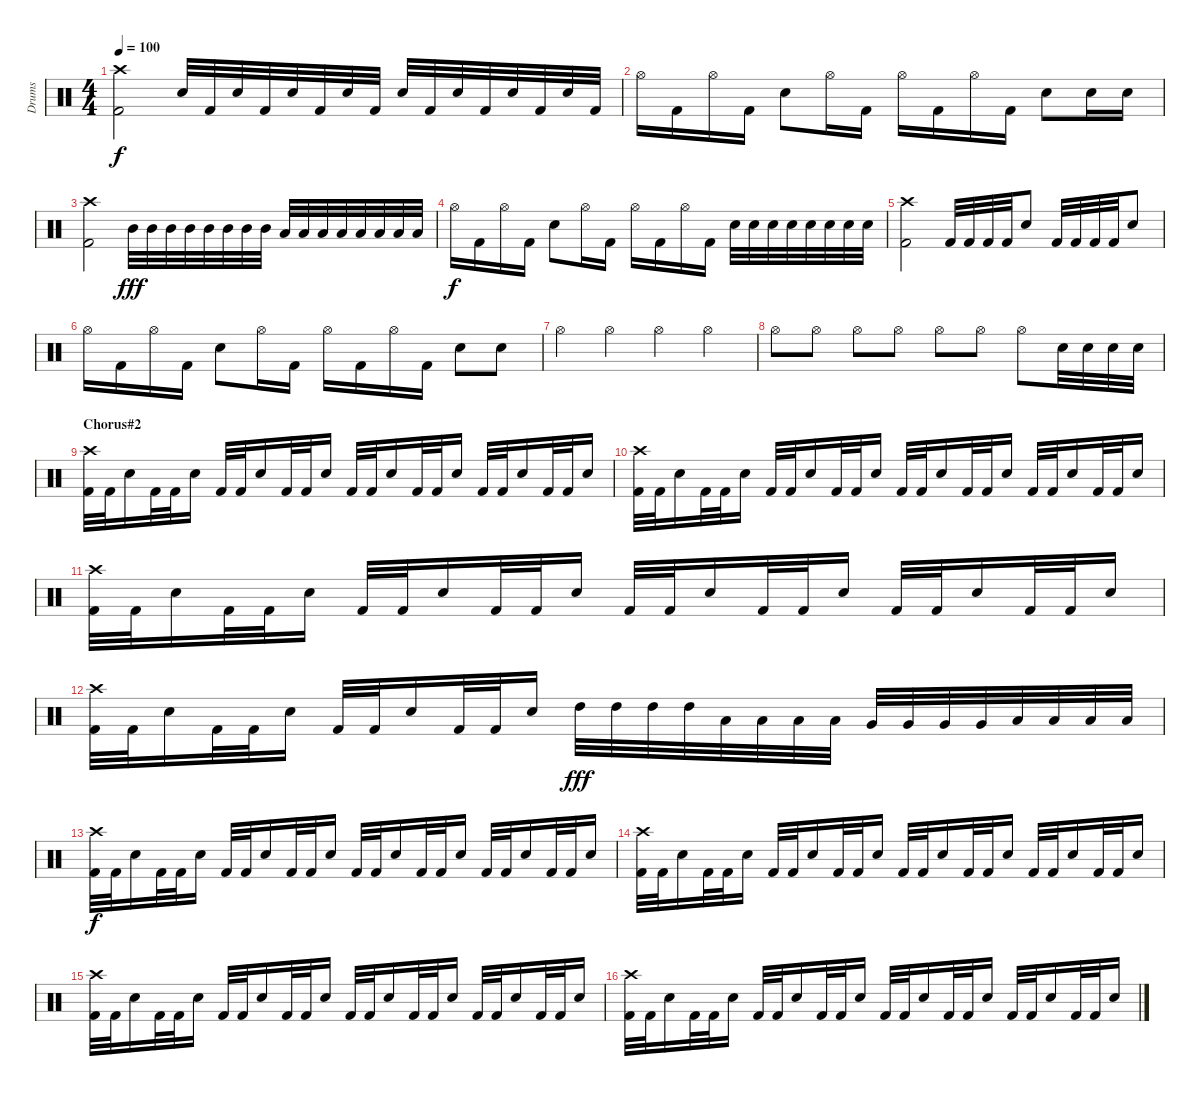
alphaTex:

\track ("Drums" "Drums") {instrument percussion}
\staff {score}
\articulation defaults
\ts (4 4)
\tempo 100
\clef neutral
\ks c
("Crash high (hit)" "Kick (hit) 2").2{dy f} "Snare (hit) 2".32 "Kick (hit) 2".32 "Snare (hit) 2".32 "Kick (hit) 2".32 "Snare (hit) 2".32 "Kick (hit) 2".32 "Snare (hit) 2".32 "Kick (hit) 2".32 "Snare (hit) 2".32 "Kick (hit) 2".32 "Snare (hit) 2".32 "Kick (hit) 2".32 "Snare (hit) 2".32 "Kick (hit) 2".32 "Snare (hit) 2".32 "Kick (hit) 2".32 |
"Hi-Hat (open)".16 "Kick (hit) 2".16 "Hi-Hat (open)".16 "Kick (hit) 2".16 "Snare (hit) 2".8 "Hi-Hat (open)".16 "Kick (hit) 2".16 "Hi-Hat (open)".16 "Kick (hit) 2".16 "Hi-Hat (open)".16 "Kick (hit) 2".16 "Snare (hit) 2".8 "Snare (hit) 2".16 "Snare (hit) 2".16 |
("Crash high (hit)" "Kick (hit) 2").2 "Mid Tom (hit)".32{dy fff} "Mid Tom (hit)".32 "Mid Tom (hit)".32 "Mid Tom (hit)".32 "Mid Tom (hit)".32 "Mid Tom (hit)".32 "Mid Tom (hit)".32 "Mid Tom (hit)".32 "Low Tom (hit)".32 "Low Tom (hit)".32 "Low Tom (hit)".32 "Low Tom (hit)".32 "Low Tom (hit)".32 "Low Tom (hit)".32 "Low Tom (hit)".32 "Low Tom (hit)".32 |
"Hi-Hat (open)".16{dy f} "Kick (hit) 2".16 "Hi-Hat (open)".16 "Kick (hit) 2".16 "Snare (hit) 2".8 "Hi-Hat (open)".16 "Kick (hit) 2".16 "Hi-Hat (open)".16 "Kick (hit) 2".16 "Hi-Hat (open)".16 "Kick (hit) 2".16 "Snare (hit) 2".32 "Snare (hit) 2".32 "Snare (hit) 2".32 "Snare (hit) 2".32 "Snare (hit) 2".32 "Snare (hit) 2".32 "Snare (hit) 2".32 "Snare (hit) 2".32 |
("Crash high (hit)" "Kick (hit) 2").2 "Kick (hit) 2".32 "Kick (hit) 2".32 "Kick (hit) 2".32 "Kick (hit) 2".32 "Snare (hit) 2".8 "Kick (hit) 2".32 "Kick (hit) 2".32 "Kick (hit) 2".32 "Kick (hit) 2".32 "Snare (hit) 2".8 |
"Hi-Hat (open)".16 "Kick (hit) 2".16 "Hi-Hat (open)".16 "Kick (hit) 2".16 "Snare (hit) 2".8 "Hi-Hat (open)".16 "Kick (hit) 2".16 "Hi-Hat (open)".16 "Kick (hit) 2".16 "Hi-Hat (open)".16 "Kick (hit) 2".16 "Snare (hit) 2".8 "Snare (hit) 2".8 |
"Hi-Hat (open)".4 "Hi-Hat (open)".4 "Hi-Hat (open)".4 "Hi-Hat (open)".4 |
"Hi-Hat (open)".8 "Hi-Hat (open)".8 "Hi-Hat (open)".8 "Hi-Hat (open)".8 "Hi-Hat (open)".8 "Hi-Hat (open)".8 "Hi-Hat (open)".8 "Snare (hit) 2".32 "Snare (hit) 2".32 "Snare (hit) 2".32 "Snare (hit) 2".32 |
\section ("" "Chorus#2")
("Crash high (hit)" "Kick (hit) 2").32 "Kick (hit) 2".32 "Snare (hit) 2".16 "Kick (hit) 2".32 "Kick (hit) 2".32 "Snare (hit) 2".16 "Kick (hit) 2".32 "Kick (hit) 2".32 "Snare (hit) 2".16 "Kick (hit) 2".32 "Kick (hit) 2".32 "Snare (hit) 2".16 "Kick (hit) 2".32 "Kick (hit) 2".32 "Snare (hit) 2".16 "Kick (hit) 2".32 "Kick (hit) 2".32 "Snare (hit) 2".16 "Kick (hit) 2".32 "Kick (hit) 2".32 "Snare (hit) 2".16 "Kick (hit) 2".32 "Kick (hit) 2".32 "Snare (hit) 2".16 |
("Crash high (hit)" "Kick (hit) 2").32 "Kick (hit) 2".32 "Snare (hit) 2".16 "Kick (hit) 2".32 "Kick (hit) 2".32 "Snare (hit) 2".16 "Kick (hit) 2".32 "Kick (hit) 2".32 "Snare (hit) 2".16 "Kick (hit) 2".32 "Kick (hit) 2".32 "Snare (hit) 2".16 "Kick (hit) 2".32 "Kick (hit) 2".32 "Snare (hit) 2".16 "Kick (hit) 2".32 "Kick (hit) 2".32 "Snare (hit) 2".16 "Kick (hit) 2".32 "Kick (hit) 2".32 "Snare (hit) 2".16 "Kick (hit) 2".32 "Kick (hit) 2".32 "Snare (hit) 2".16 |
("Crash high (hit)" "Kick (hit) 2").32 "Kick (hit) 2".32 "Snare (hit) 2".16 "Kick (hit) 2".32 "Kick (hit) 2".32 "Snare (hit) 2".16 "Kick (hit) 2".32 "Kick (hit) 2".32 "Snare (hit) 2".16 "Kick (hit) 2".32 "Kick (hit) 2".32 "Snare (hit) 2".16 "Kick (hit) 2".32 "Kick (hit) 2".32 "Snare (hit) 2".16 "Kick (hit) 2".32 "Kick (hit) 2".32 "Snare (hit) 2".16 "Kick (hit) 2".32 "Kick (hit) 2".32 "Snare (hit) 2".16 "Kick (hit) 2".32 "Kick (hit) 2".32 "Snare (hit) 2".16 |
("Crash high (hit)" "Kick (hit) 2").32 "Kick (hit) 2".32 "Snare (hit) 2".16 "Kick (hit) 2".32 "Kick (hit) 2".32 "Snare (hit) 2".16 "Kick (hit) 2".32 "Kick (hit) 2".32 "Snare (hit) 2".16 "Kick (hit) 2".32 "Kick (hit) 2".32 "Snare (hit) 2".16 "High Tom (hit)".32{dy fff} "High Tom (hit)".32 "High Tom (hit)".32 "High Tom (hit)".32 "Low Tom (hit)".32 "Low Tom (hit)".32 "Low Tom (hit)".32 "Low Tom (hit)".32 "Very Low Tom (hit)".32 "Very Low Tom (hit)".32 "Very Low Tom (hit)".32 "Very Low Tom (hit)".32 "Low Floor Tom (hit)".32 "Low Floor Tom (hit)".32 "Low Floor Tom (hit)".32 "Low Floor Tom (hit)".32 |
("Crash high (hit)" "Kick (hit) 2").32{dy f} "Kick (hit) 2".32 "Snare (hit) 2".16 "Kick (hit) 2".32 "Kick (hit) 2".32 "Snare (hit) 2".16 "Kick (hit) 2".32 "Kick (hit) 2".32 "Snare (hit) 2".16 "Kick (hit) 2".32 "Kick (hit) 2".32 "Snare (hit) 2".16 "Kick (hit) 2".32 "Kick (hit) 2".32 "Snare (hit) 2".16 "Kick (hit) 2".32 "Kick (hit) 2".32 "Snare (hit) 2".16 "Kick (hit) 2".32 "Kick (hit) 2".32 "Snare (hit) 2".16 "Kick (hit) 2".32 "Kick (hit) 2".32 "Snare (hit) 2".16 |
("Crash high (hit)" "Kick (hit) 2").32 "Kick (hit) 2".32 "Snare (hit) 2".16 "Kick (hit) 2".32 "Kick (hit) 2".32 "Snare (hit) 2".16 "Kick (hit) 2".32 "Kick (hit) 2".32 "Snare (hit) 2".16 "Kick (hit) 2".32 "Kick (hit) 2".32 "Snare (hit) 2".16 "Kick (hit) 2".32 "Kick (hit) 2".32 "Snare (hit) 2".16 "Kick (hit) 2".32 "Kick (hit) 2".32 "Snare (hit) 2".16 "Kick (hit) 2".32 "Kick (hit) 2".32 "Snare (hit) 2".16 "Kick (hit) 2".32 "Kick (hit) 2".32 "Snare (hit) 2".16 |
("Crash high (hit)" "Kick (hit) 2").32 "Kick (hit) 2".32 "Snare (hit) 2".16 "Kick (hit) 2".32 "Kick (hit) 2".32 "Snare (hit) 2".16 "Kick (hit) 2".32 "Kick (hit) 2".32 "Snare (hit) 2".16 "Kick (hit) 2".32 "Kick (hit) 2".32 "Snare (hit) 2".16 "Kick (hit) 2".32 "Kick (hit) 2".32 "Snare (hit) 2".16 "Kick (hit) 2".32 "Kick (hit) 2".32 "Snare (hit) 2".16 "Kick (hit) 2".32 "Kick (hit) 2".32 "Snare (hit) 2".16 "Kick (hit) 2".32 "Kick (hit) 2".32 "Snare (hit) 2".16 |
("Crash high (hit)" "Kick (hit) 2").32 "Kick (hit) 2".32 "Snare (hit) 2".16 "Kick (hit) 2".32 "Kick (hit) 2".32 "Snare (hit) 2".16 "Kick (hit) 2".32 "Kick (hit) 2".32 "Snare (hit) 2".16 "Kick (hit) 2".32 "Kick (hit) 2".32 "Snare (hit) 2".16 "Kick (hit) 2".32 "Kick (hit) 2".32 "Snare (hit) 2".16 "Kick (hit) 2".32 "Kick (hit) 2".32 "Snare (hit) 2".16 "Kick (hit) 2".32 "Kick (hit) 2".32 "Snare (hit) 2".16 "Kick (hit) 2".32 "Kick (hit) 2".32 "Snare (hit) 2".16
